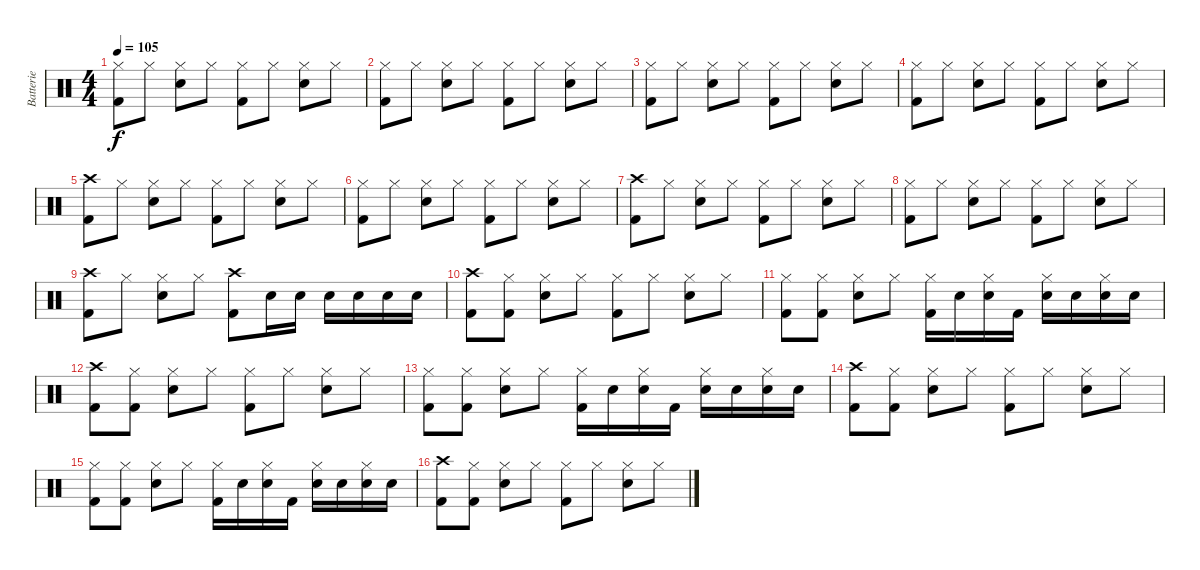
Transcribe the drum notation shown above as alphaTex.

\track ("Batterie" "Batterie") {instrument percussion}
\staff {score}
\articulation defaults
\ts (4 4)
\tempo 105
\clef neutral
\ks c
("Hi-Hat (closed)" "Kick (hit) 2").8{dy f} "Hi-Hat (closed)".8 ("Hi-Hat (closed)" "Electric Snare (hit)").8 "Hi-Hat (closed)".8 ("Hi-Hat (closed)" "Kick (hit) 2").8 "Hi-Hat (closed)".8 ("Hi-Hat (closed)" "Electric Snare (hit)").8 "Hi-Hat (closed)".8 |
("Hi-Hat (closed)" "Kick (hit) 2").8 "Hi-Hat (closed)".8 ("Hi-Hat (closed)" "Electric Snare (hit)").8 "Hi-Hat (closed)".8 ("Hi-Hat (closed)" "Kick (hit) 2").8 "Hi-Hat (closed)".8 ("Hi-Hat (closed)" "Electric Snare (hit)").8 "Hi-Hat (closed)".8 |
("Hi-Hat (closed)" "Kick (hit) 2").8 "Hi-Hat (closed)".8 ("Hi-Hat (closed)" "Electric Snare (hit)").8 "Hi-Hat (closed)".8 ("Hi-Hat (closed)" "Kick (hit) 2").8 "Hi-Hat (closed)".8 ("Hi-Hat (closed)" "Electric Snare (hit)").8 "Hi-Hat (closed)".8 |
("Hi-Hat (closed)" "Kick (hit) 2").8 "Hi-Hat (closed)".8 ("Hi-Hat (closed)" "Electric Snare (hit)").8 "Hi-Hat (closed)".8 ("Hi-Hat (closed)" "Kick (hit) 2").8 "Hi-Hat (closed)".8 ("Hi-Hat (closed)" "Electric Snare (hit)").8 "Hi-Hat (closed)".8 |
("Crash high (hit)" "Kick (hit) 2").8 "Hi-Hat (closed)".8 ("Hi-Hat (closed)" "Electric Snare (hit)").8 "Hi-Hat (closed)".8 ("Hi-Hat (closed)" "Kick (hit) 2").8 "Hi-Hat (closed)".8 ("Hi-Hat (closed)" "Electric Snare (hit)").8 "Hi-Hat (closed)".8 |
("Hi-Hat (closed)" "Kick (hit) 2").8 "Hi-Hat (closed)".8 ("Hi-Hat (closed)" "Electric Snare (hit)").8 "Hi-Hat (closed)".8 ("Hi-Hat (closed)" "Kick (hit) 2").8 "Hi-Hat (closed)".8 ("Hi-Hat (closed)" "Electric Snare (hit)").8 "Hi-Hat (closed)".8 |
("Crash high (hit)" "Kick (hit) 2").8 "Hi-Hat (closed)".8 ("Hi-Hat (closed)" "Electric Snare (hit)").8 "Hi-Hat (closed)".8 ("Hi-Hat (closed)" "Kick (hit) 2").8 "Hi-Hat (closed)".8 ("Hi-Hat (closed)" "Electric Snare (hit)").8 "Hi-Hat (closed)".8 |
("Hi-Hat (closed)" "Kick (hit) 2").8 "Hi-Hat (closed)".8 ("Hi-Hat (closed)" "Electric Snare (hit)").8 "Hi-Hat (closed)".8 ("Hi-Hat (closed)" "Kick (hit) 2").8 "Hi-Hat (closed)".8 ("Hi-Hat (closed)" "Electric Snare (hit)").8 "Hi-Hat (closed)".8 |
("Crash high (hit)" "Kick (hit) 2").8 "Hi-Hat (closed)".8 ("Hi-Hat (closed)" "Electric Snare (hit)").8 "Hi-Hat (closed)".8 ("Crash high (hit)" "Kick (hit) 2").8 "Electric Snare (hit)".16 "Electric Snare (hit)".16 "Electric Snare (hit)".16 "Electric Snare (hit)".16 "Electric Snare (hit)".16 "Electric Snare (hit)".16 |
("Crash high (hit)" "Kick (hit) 2").8 ("Hi-Hat (closed)" "Kick (hit) 2").8 ("Hi-Hat (closed)" "Electric Snare (hit)").8 "Hi-Hat (closed)".8 ("Hi-Hat (closed)" "Kick (hit) 2").8 "Hi-Hat (closed)".8 ("Hi-Hat (closed)" "Electric Snare (hit)").8 "Hi-Hat (closed)".8 |
("Hi-Hat (closed)" "Kick (hit) 2").8 ("Hi-Hat (closed)" "Kick (hit) 2").8 ("Hi-Hat (closed)" "Electric Snare (hit)").8 "Hi-Hat (closed)".8 ("Hi-Hat (closed)" "Kick (hit) 2").16 "Electric Snare (hit)".16 ("Hi-Hat (closed)" "Electric Snare (hit)").16 "Kick (hit) 2".16 ("Hi-Hat (closed)" "Electric Snare (hit)").16 "Electric Snare (hit)".16 ("Hi-Hat (closed)" "Electric Snare (hit)").16 "Electric Snare (hit)".16 |
("Crash high (hit)" "Kick (hit) 2").8 ("Hi-Hat (closed)" "Kick (hit) 2").8 ("Hi-Hat (closed)" "Electric Snare (hit)").8 "Hi-Hat (closed)".8 ("Hi-Hat (closed)" "Kick (hit) 2").8 "Hi-Hat (closed)".8 ("Hi-Hat (closed)" "Electric Snare (hit)").8 "Hi-Hat (closed)".8 |
("Hi-Hat (closed)" "Kick (hit) 2").8 ("Hi-Hat (closed)" "Kick (hit) 2").8 ("Hi-Hat (closed)" "Electric Snare (hit)").8 "Hi-Hat (closed)".8 ("Hi-Hat (closed)" "Kick (hit) 2").16 "Electric Snare (hit)".16 ("Hi-Hat (closed)" "Electric Snare (hit)").16 "Kick (hit) 2".16 ("Hi-Hat (closed)" "Electric Snare (hit)").16 "Electric Snare (hit)".16 ("Hi-Hat (closed)" "Electric Snare (hit)").16 "Electric Snare (hit)".16 |
("Crash high (hit)" "Kick (hit) 2").8 ("Hi-Hat (closed)" "Kick (hit) 2").8 ("Hi-Hat (closed)" "Electric Snare (hit)").8 "Hi-Hat (closed)".8 ("Hi-Hat (closed)" "Kick (hit) 2").8 "Hi-Hat (closed)".8 ("Hi-Hat (closed)" "Electric Snare (hit)").8 "Hi-Hat (closed)".8 |
("Hi-Hat (closed)" "Kick (hit) 2").8 ("Hi-Hat (closed)" "Kick (hit) 2").8 ("Hi-Hat (closed)" "Electric Snare (hit)").8 "Hi-Hat (closed)".8 ("Hi-Hat (closed)" "Kick (hit) 2").16 "Electric Snare (hit)".16 ("Hi-Hat (closed)" "Electric Snare (hit)").16 "Kick (hit) 2".16 ("Hi-Hat (closed)" "Electric Snare (hit)").16 "Electric Snare (hit)".16 ("Hi-Hat (closed)" "Electric Snare (hit)").16 "Electric Snare (hit)".16 |
("Crash high (hit)" "Kick (hit) 2").8 ("Hi-Hat (closed)" "Kick (hit) 2").8 ("Hi-Hat (closed)" "Electric Snare (hit)").8 "Hi-Hat (closed)".8 ("Hi-Hat (closed)" "Kick (hit) 2").8 "Hi-Hat (closed)".8 ("Hi-Hat (closed)" "Electric Snare (hit)").8 "Hi-Hat (closed)".8
